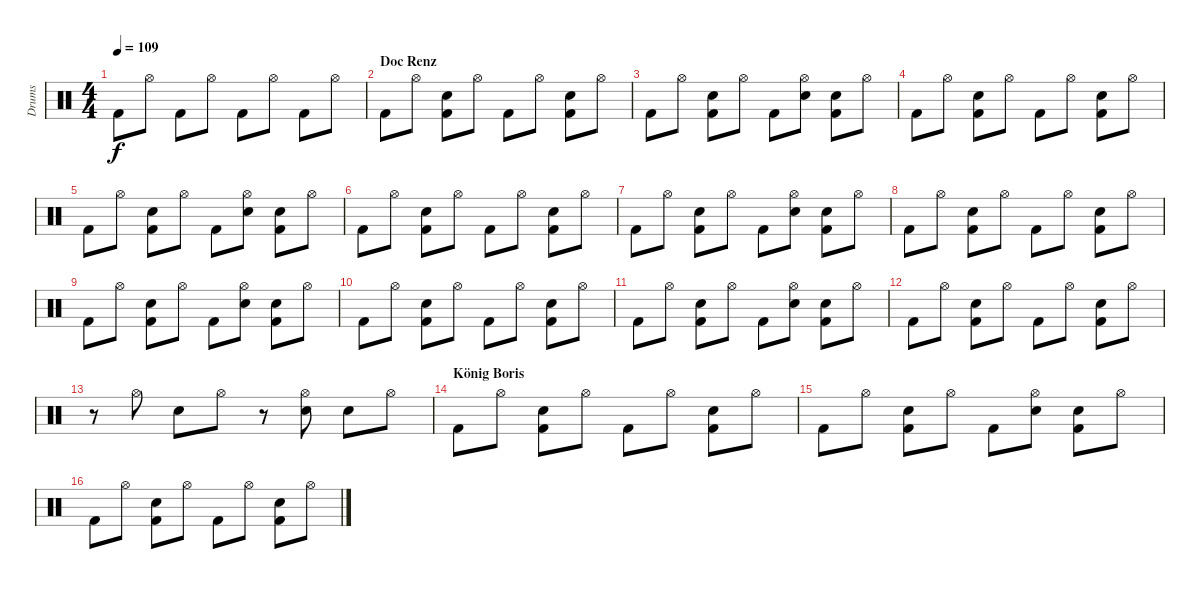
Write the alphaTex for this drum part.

\track ("Drums" "Drums") {instrument percussion}
\staff {score}
\articulation defaults
\ts (4 4)
\tempo 109
\clef neutral
\ks c "Kick (hit) 2".8{dy f} "Hi-Hat (open)".8 "Kick (hit) 2".8 "Hi-Hat (open)".8 "Kick (hit) 2".8 "Hi-Hat (open)".8 "Kick (hit) 2".8 "Hi-Hat (open)".8
|
\section ("" "Doc Renz")
"Kick (hit) 2".8 "Hi-Hat (open)".8 ("Hand Clap (hit)" "Kick (hit) 2").8 "Hi-Hat (open)".8 "Kick (hit) 2".8 "Hi-Hat (open)".8 ("Hand Clap (hit)" "Kick (hit) 2").8 "Hi-Hat (open)".8 |
"Kick (hit) 2".8 "Hi-Hat (open)".8 ("Hand Clap (hit)" "Kick (hit) 2").8 "Hi-Hat (open)".8 "Kick (hit) 2".8 ("Hi-Hat (open)" "Hand Clap (hit)").8 ("Hand Clap (hit)" "Kick (hit) 2").8 "Hi-Hat (open)".8 |
"Kick (hit) 2".8 "Hi-Hat (open)".8 ("Hand Clap (hit)" "Kick (hit) 2").8 "Hi-Hat (open)".8 "Kick (hit) 2".8 "Hi-Hat (open)".8 ("Hand Clap (hit)" "Kick (hit) 2").8 "Hi-Hat (open)".8 |
"Kick (hit) 2".8 "Hi-Hat (open)".8 ("Hand Clap (hit)" "Kick (hit) 2").8 "Hi-Hat (open)".8 "Kick (hit) 2".8 ("Hi-Hat (open)" "Hand Clap (hit)").8 ("Hand Clap (hit)" "Kick (hit) 2").8 "Hi-Hat (open)".8 |
"Kick (hit) 2".8 "Hi-Hat (open)".8 ("Hand Clap (hit)" "Kick (hit) 2").8 "Hi-Hat (open)".8 "Kick (hit) 2".8 "Hi-Hat (open)".8 ("Hand Clap (hit)" "Kick (hit) 2").8 "Hi-Hat (open)".8 |
"Kick (hit) 2".8 "Hi-Hat (open)".8 ("Hand Clap (hit)" "Kick (hit) 2").8 "Hi-Hat (open)".8 "Kick (hit) 2".8 ("Hi-Hat (open)" "Hand Clap (hit)").8 ("Hand Clap (hit)" "Kick (hit) 2").8 "Hi-Hat (open)".8 |
"Kick (hit) 2".8 "Hi-Hat (open)".8 ("Hand Clap (hit)" "Kick (hit) 2").8 "Hi-Hat (open)".8 "Kick (hit) 2".8 "Hi-Hat (open)".8 ("Hand Clap (hit)" "Kick (hit) 2").8 "Hi-Hat (open)".8 |
"Kick (hit) 2".8 "Hi-Hat (open)".8 ("Hand Clap (hit)" "Kick (hit) 2").8 "Hi-Hat (open)".8 "Kick (hit) 2".8 ("Hi-Hat (open)" "Hand Clap (hit)").8 ("Hand Clap (hit)" "Kick (hit) 2").8 "Hi-Hat (open)".8 |
"Kick (hit) 2".8 "Hi-Hat (open)".8 ("Hand Clap (hit)" "Kick (hit) 2").8 "Hi-Hat (open)".8 "Kick (hit) 2".8 "Hi-Hat (open)".8 ("Hand Clap (hit)" "Kick (hit) 2").8 "Hi-Hat (open)".8 |
"Kick (hit) 2".8 "Hi-Hat (open)".8 ("Hand Clap (hit)" "Kick (hit) 2").8 "Hi-Hat (open)".8 "Kick (hit) 2".8 ("Hi-Hat (open)" "Hand Clap (hit)").8 ("Hand Clap (hit)" "Kick (hit) 2").8 "Hi-Hat (open)".8 |
"Kick (hit) 2".8 "Hi-Hat (open)".8 ("Hand Clap (hit)" "Kick (hit) 2").8 "Hi-Hat (open)".8 "Kick (hit) 2".8 "Hi-Hat (open)".8 ("Hand Clap (hit)" "Kick (hit) 2").8 "Hi-Hat (open)".8 |
r.8 "Hi-Hat (open)".8 "Hand Clap (hit)".8 "Hi-Hat (open)".8 r.8 ("Hi-Hat (open)" "Hand Clap (hit)").8 "Hand Clap (hit)".8 "Hi-Hat (open)".8 |
\section ("" "König Boris")
"Kick (hit) 2".8 "Hi-Hat (open)".8 ("Hand Clap (hit)" "Kick (hit) 2").8 "Hi-Hat (open)".8 "Kick (hit) 2".8 "Hi-Hat (open)".8 ("Hand Clap (hit)" "Kick (hit) 2").8 "Hi-Hat (open)".8 |
"Kick (hit) 2".8 "Hi-Hat (open)".8 ("Hand Clap (hit)" "Kick (hit) 2").8 "Hi-Hat (open)".8 "Kick (hit) 2".8 ("Hi-Hat (open)" "Hand Clap (hit)").8 ("Hand Clap (hit)" "Kick (hit) 2").8 "Hi-Hat (open)".8 |
"Kick (hit) 2".8 "Hi-Hat (open)".8 ("Hand Clap (hit)" "Kick (hit) 2").8 "Hi-Hat (open)".8 "Kick (hit) 2".8 "Hi-Hat (open)".8 ("Hand Clap (hit)" "Kick (hit) 2").8 "Hi-Hat (open)".8
